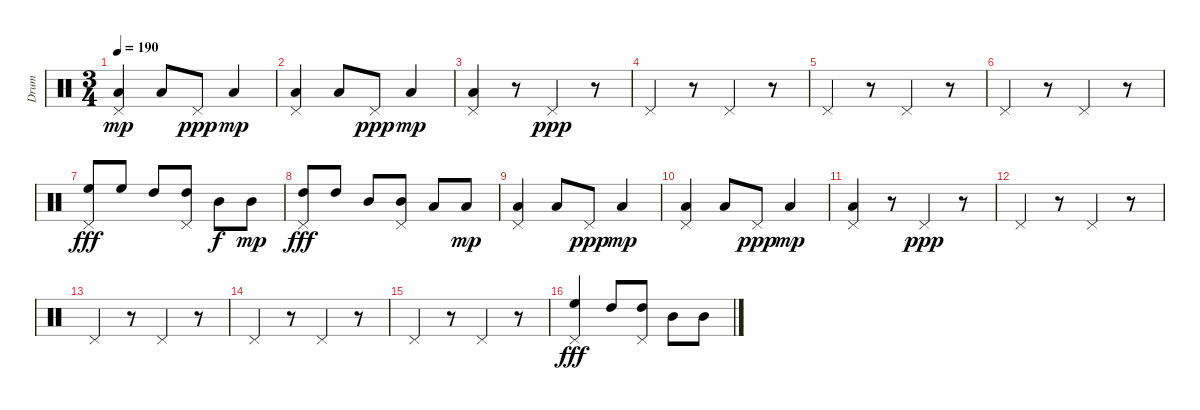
\track ("Drum" "Drum") {instrument percussion}
\staff {score}
\articulation defaults
\ts (3 4)
\tempo 190
\clef neutral
\ks c
("Pedal Hi-Hat (hit)" "Low Tom (hit)").4{dy mp} "Low Tom (hit)".8 "Pedal Hi-Hat (hit)".8{dy ppp} "Low Tom (hit)".4{dy mp} |
("Pedal Hi-Hat (hit)" "Low Tom (hit)").4 "Low Tom (hit)".8 "Pedal Hi-Hat (hit)".8{dy ppp} "Low Tom (hit)".4{dy mp} |
("Pedal Hi-Hat (hit)" "Low Tom (hit)").4 r.8 "Pedal Hi-Hat (hit)".4{dy ppp} r.8 |
"Pedal Hi-Hat (hit)".4 r.8 "Pedal Hi-Hat (hit)".4 r.8 |
"Pedal Hi-Hat (hit)".4 r.8 "Pedal Hi-Hat (hit)".4 r.8 |
"Pedal Hi-Hat (hit)".4 r.8 "Pedal Hi-Hat (hit)".4 r.8 |
("Pedal Hi-Hat (hit)" "High Floor Tom (hit)").8{dy fff} "High Floor Tom (hit)".8 "High Tom (hit)".8 ("Pedal Hi-Hat (hit)" "High Tom (hit)").8 "Mid Tom (hit)".8{dy f} "Mid Tom (hit)".8{dy mp} |
("Pedal Hi-Hat (hit)" "High Tom (hit)").8{dy fff} "High Tom (hit)".8 "Mid Tom (hit)".8 ("Pedal Hi-Hat (hit)" "Mid Tom (hit)").8 "Low Tom (hit)".8 "Low Tom (hit)".8{dy mp} |
("Pedal Hi-Hat (hit)" "Low Tom (hit)").4 "Low Tom (hit)".8 "Pedal Hi-Hat (hit)".8{dy ppp} "Low Tom (hit)".4{dy mp} |
("Pedal Hi-Hat (hit)" "Low Tom (hit)").4 "Low Tom (hit)".8 "Pedal Hi-Hat (hit)".8{dy ppp} "Low Tom (hit)".4{dy mp} |
("Pedal Hi-Hat (hit)" "Low Tom (hit)").4 r.8 "Pedal Hi-Hat (hit)".4{dy ppp} r.8 |
"Pedal Hi-Hat (hit)".4 r.8 "Pedal Hi-Hat (hit)".4 r.8 |
"Pedal Hi-Hat (hit)".4 r.8 "Pedal Hi-Hat (hit)".4 r.8 |
"Pedal Hi-Hat (hit)".4 r.8 "Pedal Hi-Hat (hit)".4 r.8 |
"Pedal Hi-Hat (hit)".4 r.8 "Pedal Hi-Hat (hit)".4 r.8 |
("Pedal Hi-Hat (hit)" "High Floor Tom (hit)").4{dy fff} "High Tom (hit)".8 ("Pedal Hi-Hat (hit)" "High Tom (hit)").8 "Mid Tom (hit)".8 "Mid Tom (hit)".8
